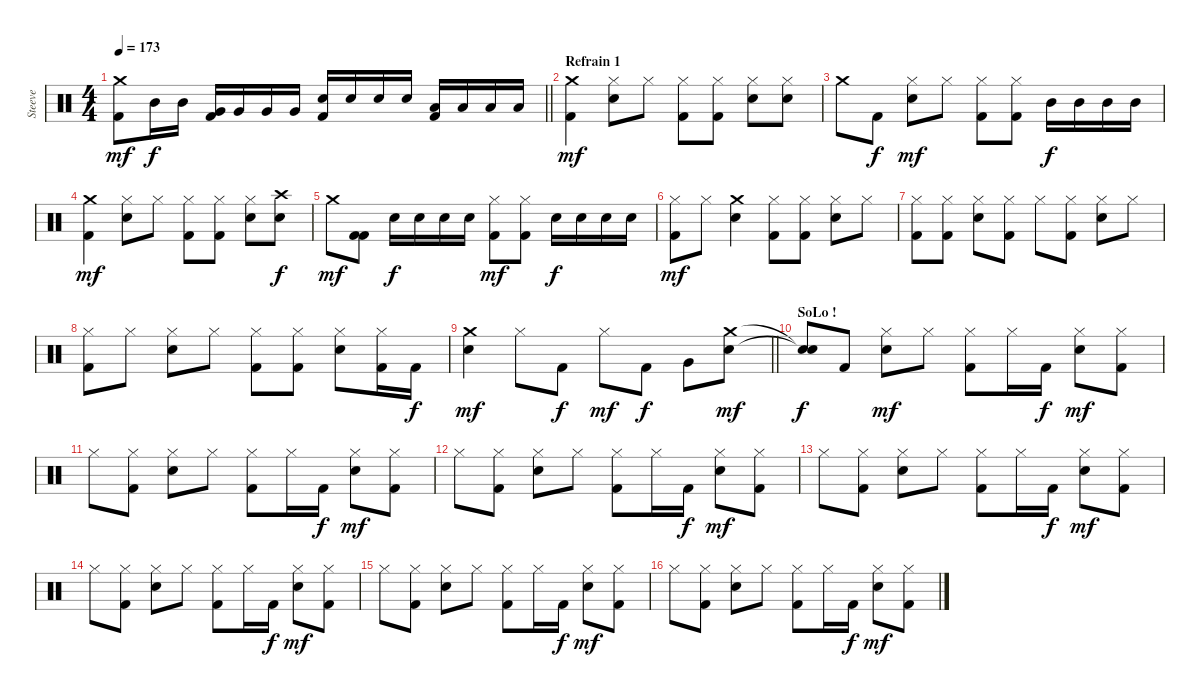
\track ("Steeve" "Steeve") {instrument percussion}
\staff {score}
\articulation defaults
\ts (4 4)
\section ("" "")
\tempo 173
\clef neutral
\barLineRight lightlight
\ks c
("Crash medium (hit)" "Kick (hit) 2").8{dy mf} "Mid Tom (hit)".16{dy f} "Mid Tom (hit)".16 ("Very Low Tom (hit)" "Kick (hit) 2").16 "Very Low Tom (hit)".16 "Very Low Tom (hit)".16 "Very Low Tom (hit)".16 ("Electric Snare (hit)" "Kick (hit) 2").16 "Electric Snare (hit)".16 "Electric Snare (hit)".16 "Electric Snare (hit)".16 ("Low Floor Tom (hit)" "Kick (hit) 2").16 "Low Floor Tom (hit)".16 "Low Floor Tom (hit)".16 "Low Floor Tom (hit)".16 |
\section ("" "Refrain 1")
("Crash medium (hit)" "Kick (hit) 2").4{dy mf} ("Hi-Hat (closed)" "Electric Snare (hit)").8 "Hi-Hat (closed)".8 ("Hi-Hat (closed)" "Kick (hit) 2").8 ("Hi-Hat (closed)" "Kick (hit) 2").8 ("Hi-Hat (closed)" "Electric Snare (hit)").8 ("Hi-Hat (closed)" "Electric Snare (hit)").8 |
"Crash medium (hit)".8 "Kick (hit) 2".8{dy f} ("Hi-Hat (closed)" "Electric Snare (hit)").8{dy mf} "Hi-Hat (closed)".8 ("Hi-Hat (closed)" "Kick (hit) 2").8 ("Hi-Hat (closed)" "Kick (hit) 2").8 "Mid Tom (hit)".16{dy f} "Mid Tom (hit)".16 "Mid Tom (hit)".16 "Mid Tom (hit)".16 |
("Crash medium (hit)" "Kick (hit) 2").4{dy mf} ("Hi-Hat (closed)" "Electric Snare (hit)").8 "Hi-Hat (closed)".8 ("Hi-Hat (closed)" "Kick (hit) 2").8 ("Hi-Hat (closed)" "Kick (hit) 2").8 ("Hi-Hat (closed)" "Electric Snare (hit)").8 ("Crash high (hit)" "Electric Snare (hit)").8{dy f} |
"Crash medium (hit)".8{dy mf} ("Kick (hit) 2" "Kick (hit) 2").8 "Electric Snare (hit)".16{dy f} "Electric Snare (hit)".16 "Electric Snare (hit)".16 "Electric Snare (hit)".16 ("Hi-Hat (closed)" "Kick (hit) 2").8{dy mf} ("Hi-Hat (closed)" "Kick (hit) 2").8 "Electric Snare (hit)".16{dy f} "Electric Snare (hit)".16 "Electric Snare (hit)".16 "Electric Snare (hit)".16 |
("Hi-Hat (closed)" "Kick (hit) 2").8{dy mf} "Hi-Hat (closed)".8 ("Crash medium (hit)" "Electric Snare (hit)").4 ("Hi-Hat (closed)" "Kick (hit) 2").8 ("Hi-Hat (closed)" "Kick (hit) 2").8 ("Hi-Hat (closed)" "Electric Snare (hit)").8 "Hi-Hat (closed)".8 |
("Hi-Hat (closed)" "Kick (hit) 2").8 ("Hi-Hat (closed)" "Kick (hit) 2").8 ("Hi-Hat (closed)" "Electric Snare (hit)").8 ("Hi-Hat (closed)" "Kick (hit) 2").8 "Hi-Hat (closed)".8 ("Hi-Hat (closed)" "Kick (hit) 2").8 ("Hi-Hat (closed)" "Electric Snare (hit)").8 "Hi-Hat (closed)".8 |
("Hi-Hat (closed)" "Kick (hit) 2").8 "Hi-Hat (closed)".8 ("Hi-Hat (closed)" "Electric Snare (hit)").8 "Hi-Hat (closed)".8 ("Hi-Hat (closed)" "Kick (hit) 2").8 ("Hi-Hat (closed)" "Kick (hit) 2").8 ("Hi-Hat (closed)" "Electric Snare (hit)").8 ("Hi-Hat (closed)" "Kick (hit) 2").16 "Kick (hit) 2".16{dy f} |
\barLineRight lightlight
("Crash medium (hit)" "Electric Snare (hit)").4{dy mf} "Hi-Hat (closed)".8 "Kick (hit) 2".8{dy f} "Hi-Hat (closed)".8{dy mf} "Kick (hit) 2".8{dy f} "Very Low Tom (hit)".8 ("Crash medium (hit)" "Electric Snare (hit)").8{dy mf} |
\section ("" "SoLo !")
("Snare (hit)"{t} "Snare (hit)"{t}).8{dy f} "Kick (hit) 2".8 ("Hi-Hat (closed)" "Electric Snare (hit)").8{dy mf} "Hi-Hat (closed)".8 ("Hi-Hat (closed)" "Kick (hit) 2").8 "Hi-Hat (closed)".16 "Kick (hit) 2".16{dy f} ("Hi-Hat (closed)" "Electric Snare (hit)").8{dy mf} ("Hi-Hat (closed)" "Kick (hit) 2").8 |
"Hi-Hat (closed)".8 ("Hi-Hat (closed)" "Kick (hit) 2").8 ("Hi-Hat (closed)" "Electric Snare (hit)").8 "Hi-Hat (closed)".8 ("Hi-Hat (closed)" "Kick (hit) 2").8 "Hi-Hat (closed)".16 "Kick (hit) 2".16{dy f} ("Hi-Hat (closed)" "Electric Snare (hit)").8{dy mf} ("Hi-Hat (closed)" "Kick (hit) 2").8 |
"Hi-Hat (closed)".8 ("Hi-Hat (closed)" "Kick (hit) 2").8 ("Hi-Hat (closed)" "Electric Snare (hit)").8 "Hi-Hat (closed)".8 ("Hi-Hat (closed)" "Kick (hit) 2").8 "Hi-Hat (closed)".16 "Kick (hit) 2".16{dy f} ("Hi-Hat (closed)" "Electric Snare (hit)").8{dy mf} ("Hi-Hat (closed)" "Kick (hit) 2").8 |
"Hi-Hat (closed)".8 ("Hi-Hat (closed)" "Kick (hit) 2").8 ("Hi-Hat (closed)" "Electric Snare (hit)").8 "Hi-Hat (closed)".8 ("Hi-Hat (closed)" "Kick (hit) 2").8 "Hi-Hat (closed)".16 "Kick (hit) 2".16{dy f} ("Hi-Hat (closed)" "Electric Snare (hit)").8{dy mf} ("Hi-Hat (closed)" "Kick (hit) 2").8 |
"Hi-Hat (closed)".8 ("Hi-Hat (closed)" "Kick (hit) 2").8 ("Hi-Hat (closed)" "Electric Snare (hit)").8 "Hi-Hat (closed)".8 ("Hi-Hat (closed)" "Kick (hit) 2").8 "Hi-Hat (closed)".16 "Kick (hit) 2".16{dy f} ("Hi-Hat (closed)" "Electric Snare (hit)").8{dy mf} ("Hi-Hat (closed)" "Kick (hit) 2").8 |
"Hi-Hat (closed)".8 ("Hi-Hat (closed)" "Kick (hit) 2").8 ("Hi-Hat (closed)" "Electric Snare (hit)").8 "Hi-Hat (closed)".8 ("Hi-Hat (closed)" "Kick (hit) 2").8 "Hi-Hat (closed)".16 "Kick (hit) 2".16{dy f} ("Hi-Hat (closed)" "Electric Snare (hit)").8{dy mf} ("Hi-Hat (closed)" "Kick (hit) 2").8 |
"Hi-Hat (closed)".8 ("Hi-Hat (closed)" "Kick (hit) 2").8 ("Hi-Hat (closed)" "Electric Snare (hit)").8 "Hi-Hat (closed)".8 ("Hi-Hat (closed)" "Kick (hit) 2").8 "Hi-Hat (closed)".16 "Kick (hit) 2".16{dy f} ("Hi-Hat (closed)" "Electric Snare (hit)").8{dy mf} ("Hi-Hat (closed)" "Kick (hit) 2").8
